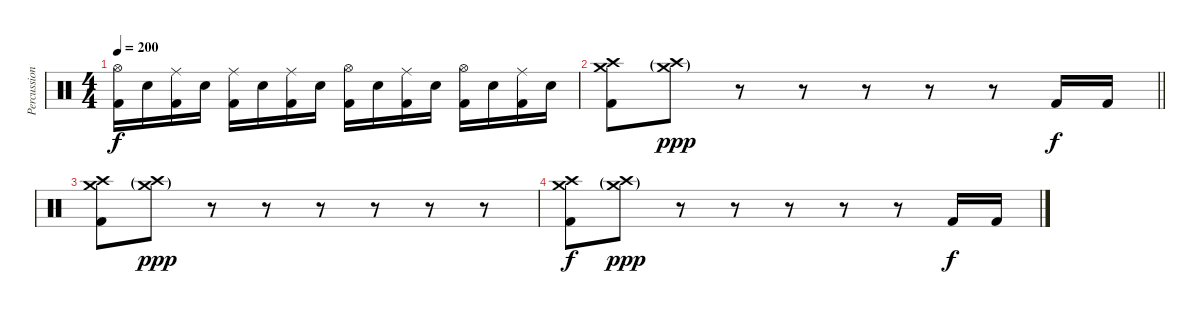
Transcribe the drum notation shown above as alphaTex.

\track ("Percussion" "Percussion") {instrument percussion}
\staff {score}
\articulation defaults
\ts (4 4)
\tempo 200
\clef neutral
\ks c
("Hi-Hat (open)" "Kick (hit) 2").16{dy f} "Electric Snare (hit)".16 ("Ride (middle)" "Kick (hit) 2").16 "Electric Snare (hit)".16 ("Ride (middle)" "Kick (hit) 2").16 "Electric Snare (hit)".16 ("Ride (middle)" "Kick (hit) 2").16 "Electric Snare (hit)".16 ("Hi-Hat (open)" "Kick (hit) 2").16 "Electric Snare (hit)".16 ("Ride (middle)" "Kick (hit) 2").16 "Electric Snare (hit)".16 ("Hi-Hat (open)" "Kick (hit) 2").16 "Electric Snare (hit)".16 ("Ride (middle)" "Kick (hit) 2").16 "Electric Snare (hit)".16 |
\barLineRight lightlight
("Crash medium (hit)" "Crash high (hit)" "Kick (hit) 2").8 ("Crash medium (hit)"{g} "Crash high (hit)"{g}).8{dy ppp} r.8 r.8 r.8 r.8 r.8 "Kick (hit) 2".16{dy f} "Kick (hit) 2".16 |
("Crash medium (hit)" "Crash high (hit)" "Kick (hit) 2").8 ("Crash medium (hit)"{g} "Crash high (hit)"{g}).8{dy ppp} r.8 r.8 r.8 r.8 r.8 r.8 |
("Crash medium (hit)" "Crash high (hit)" "Kick (hit) 2").8{dy f} ("Crash medium (hit)"{g} "Crash high (hit)"{g}).8{dy ppp} r.8 r.8 r.8 r.8 r.8 "Kick (hit) 2".16{dy f} "Kick (hit) 2".16
